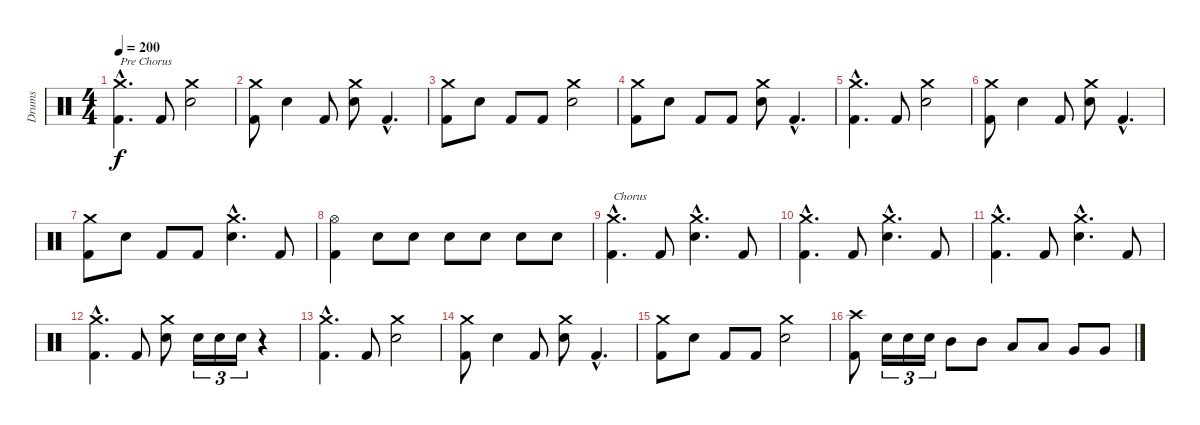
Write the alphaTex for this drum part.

\track ("Drums" "Drums") {instrument percussion}
\staff {score}
\articulation defaults
\ts (4 4)
\tempo 200
\clef neutral
\ks c
("Crash medium (hit)"{hac} "Kick (hit) 2"{hac}).4{d txt "Pre Chorus" dy f} "Kick (hit) 2".8 ("Crash medium (hit)" "Electric Snare (hit)").2 |
("Crash medium (hit)" "Kick (hit) 2").8 "Electric Snare (hit)".4 "Kick (hit) 2".8 ("Crash medium (hit)" "Electric Snare (hit)").8 "Kick (hit) 2"{hac}.4{d} |
("Crash medium (hit)" "Kick (hit) 2").8 "Electric Snare (hit)".8 "Kick (hit) 2".8 "Kick (hit) 2".8 ("Crash medium (hit)" "Electric Snare (hit)").2 |
("Crash medium (hit)" "Kick (hit) 2").8 "Electric Snare (hit)".8 "Kick (hit) 2".8 "Kick (hit) 2".8 ("Crash medium (hit)" "Electric Snare (hit)").8 "Kick (hit) 2"{hac}.4{d} |
("Crash medium (hit)"{hac} "Kick (hit) 2"{hac}).4{d} "Kick (hit) 2".8 ("Crash medium (hit)" "Electric Snare (hit)").2 |
("Crash medium (hit)" "Kick (hit) 2").8 "Electric Snare (hit)".4 "Kick (hit) 2".8 ("Crash medium (hit)" "Electric Snare (hit)").8 "Kick (hit) 2"{hac}.4{d} |
("Crash medium (hit)" "Kick (hit) 2").8 "Electric Snare (hit)".8 "Kick (hit) 2".8 "Kick (hit) 2".8 ("Crash medium (hit)"{hac} "Electric Snare (hit)"{hac}).4{d} "Kick (hit) 2".8 |
("Hi-Hat (open)" "Kick (hit) 2").4 "Electric Snare (hit)".8 "Electric Snare (hit)".8 "Electric Snare (hit)".8 "Electric Snare (hit)".8 "Electric Snare (hit)".8 "Electric Snare (hit)".8 |
("Crash medium (hit)"{hac} "Kick (hit) 2"{hac}).4{d txt "Chorus"} "Kick (hit) 2".8 ("Crash medium (hit)"{hac} "Electric Snare (hit)"{hac}).4{d} "Kick (hit) 2".8 |
("Crash medium (hit)"{hac} "Kick (hit) 2"{hac}).4{d} "Kick (hit) 2".8 ("Crash medium (hit)"{hac} "Electric Snare (hit)"{hac}).4{d} "Kick (hit) 2".8 |
("Crash medium (hit)"{hac} "Kick (hit) 2"{hac}).4{d} "Kick (hit) 2".8 ("Crash medium (hit)"{hac} "Electric Snare (hit)"{hac}).4{d} "Kick (hit) 2".8 |
("Crash medium (hit)"{hac} "Kick (hit) 2"{hac}).4{d} "Kick (hit) 2".8 ("Crash medium (hit)" "Electric Snare (hit)").8 "Electric Snare (hit)".16{tu (3 2)} "Electric Snare (hit)".16{tu (3 2)} "Electric Snare (hit)".16{tu (3 2)} r.4 |
("Crash medium (hit)"{hac} "Kick (hit) 2"{hac}).4{d} "Kick (hit) 2".8 ("Crash medium (hit)" "Electric Snare (hit)").2 |
("Crash medium (hit)" "Kick (hit) 2").8 "Electric Snare (hit)".4 "Kick (hit) 2".8 ("Crash medium (hit)" "Electric Snare (hit)").8 "Kick (hit) 2"{hac}.4{d} |
("Crash medium (hit)" "Kick (hit) 2").8 "Electric Snare (hit)".8 "Kick (hit) 2".8 "Kick (hit) 2".8 ("Crash medium (hit)" "Electric Snare (hit)").2 |
("Crash high (hit)" "Kick (hit) 2").8 "Electric Snare (hit)".16{tu (3 2)} "Electric Snare (hit)".16{tu (3 2)} "Electric Snare (hit)".16{tu (3 2)} "Mid Tom (hit)".8 "Mid Tom (hit)".8 "Low Tom (hit)".8 "Low Tom (hit)".8 "Very Low Tom (hit)".8 "Very Low Tom (hit)".8
